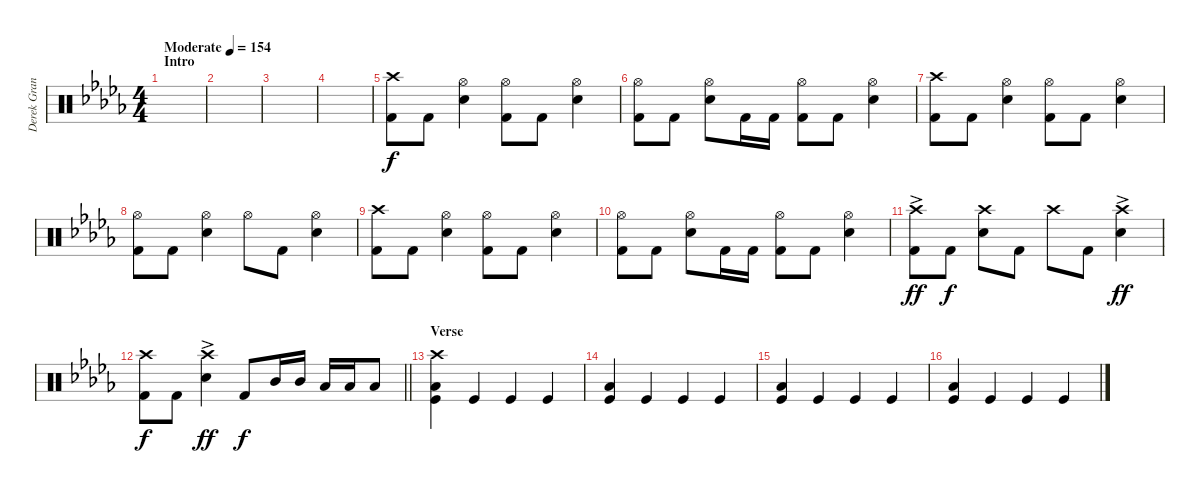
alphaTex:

\track ("Derek Grant - Drums" "Derek Gran") {instrument percussion}
\staff {score}
\articulation defaults
\ts (4 4)
\section ("" "Intro")
\tempo (154 "Moderate")
\clef neutral
\ks db
|
|
|
|
("Crash high (hit)" "Kick (hit) 2").8 "Kick (hit) 2".8 ("Snare (hit) 2" "Hi-Hat (open)").4 ("Hi-Hat (open)" "Kick (hit) 2").8 "Kick (hit) 2".8 ("Hi-Hat (open)" "Snare (hit) 2").4 |
("Hi-Hat (open)" "Kick (hit) 2").8 "Kick (hit) 2".8 ("Snare (hit) 2" "Hi-Hat (open)").8 "Kick (hit) 2".16 "Kick (hit) 2".16 ("Kick (hit) 2" "Hi-Hat (open)").8 "Kick (hit) 2".8 ("Snare (hit) 2" "Hi-Hat (open)").4 |
("Crash high (hit)" "Kick (hit) 2").8 "Kick (hit) 2".8 ("Snare (hit) 2" "Hi-Hat (open)").4 ("Hi-Hat (open)" "Kick (hit) 2").8 "Kick (hit) 2".8 ("Hi-Hat (open)" "Snare (hit) 2").4 |
("Hi-Hat (open)" "Kick (hit) 2").8 "Kick (hit) 2".8 ("Snare (hit) 2" "Hi-Hat (open)").4 "Hi-Hat (open)".8 "Kick (hit) 2".8 ("Snare (hit) 2" "Hi-Hat (open)").4 |
("Crash high (hit)" "Kick (hit) 2").8 "Kick (hit) 2".8 ("Snare (hit) 2" "Hi-Hat (open)").4 ("Hi-Hat (open)" "Kick (hit) 2").8 "Kick (hit) 2".8 ("Hi-Hat (open)" "Snare (hit) 2").4 |
("Hi-Hat (open)" "Kick (hit) 2").8 "Kick (hit) 2".8 ("Snare (hit) 2" "Hi-Hat (open)").8 "Kick (hit) 2".16 "Kick (hit) 2".16 ("Kick (hit) 2" "Hi-Hat (open)").8 "Kick (hit) 2".8 ("Snare (hit) 2" "Hi-Hat (open)").4 |
("Kick (hit) 2" "Crash high (hit)"{ac}).8{dy ff} "Kick (hit) 2".8{dy f} ("Snare (hit) 2" "Crash high (hit)").8 "Kick (hit) 2".8 "Crash high (hit)".8 "Kick (hit) 2".8 ("Snare (hit) 2" "Crash high (hit)"{ac}).4{dy ff} |
\barLineRight lightlight
("Kick (hit) 2" "Crash high (hit)").8{dy f} "Kick (hit) 2".8 ("Snare (hit) 2" "Crash high (hit)"{ac}).4{dy ff} "Kick (hit) 2".8{dy f} "Mid Tom (hit)".16 "Mid Tom (hit)".16 "Low Tom (hit)".16 "Low Tom (hit)".16 "Low Floor Tom (hit)".8 |
\section ("" "Verse")
("Kick (hit)" "Low Floor Tom (hit)" "Crash high (hit)").4 "Kick (hit)".4 "Kick (hit)".4 "Kick (hit)".4 |
("Kick (hit)" "Low Floor Tom (hit)").4 "Kick (hit)".4 "Kick (hit)".4 "Kick (hit)".4 |
("Kick (hit)" "Low Floor Tom (hit)").4 "Kick (hit)".4 "Kick (hit)".4 "Kick (hit)".4 |
("Kick (hit)" "Low Floor Tom (hit)").4 "Kick (hit)".4 "Kick (hit)".4 "Kick (hit)".4
